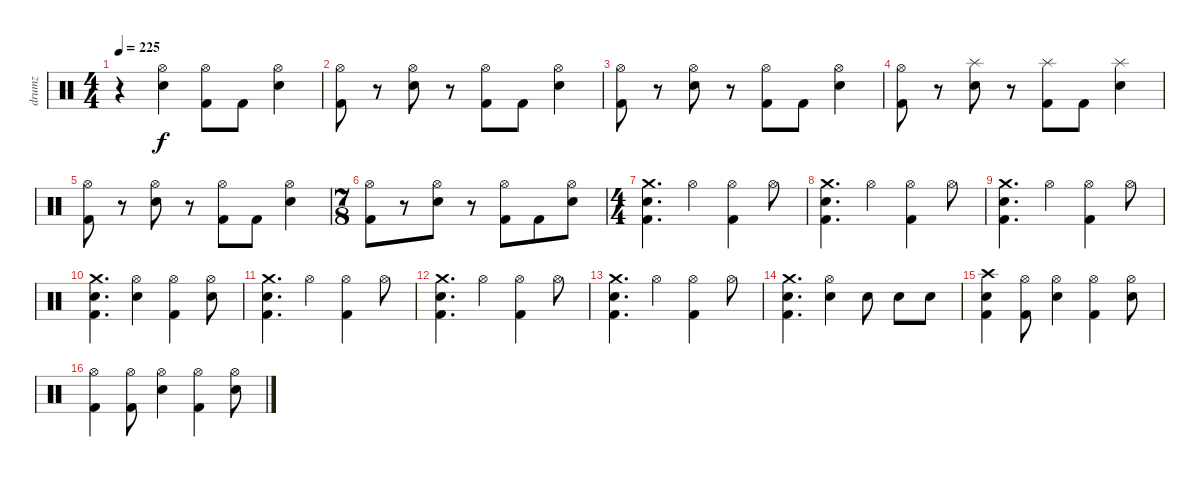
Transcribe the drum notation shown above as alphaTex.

\track ("drumz" "drumz") {instrument percussion}
\staff {score}
\articulation defaults
\ts (4 4)
\tempo 225
\clef neutral
\ks c
r.4{dy f} ("Hi-Hat (open)" "Electric Snare (hit)").4 ("Hi-Hat (open)" "Kick (hit) 2").8 "Kick (hit) 2".8 ("Hi-Hat (open)" "Electric Snare (hit)").4 |
("Hi-Hat (open)" "Kick (hit) 2").8 r.8 ("Hi-Hat (open)" "Electric Snare (hit)").8 r.8 ("Hi-Hat (open)" "Kick (hit) 2").8 "Kick (hit) 2".8 ("Hi-Hat (open)" "Electric Snare (hit)").4 |
("Hi-Hat (open)" "Kick (hit) 2").8 r.8 ("Hi-Hat (open)" "Electric Snare (hit)").8 r.8 ("Hi-Hat (open)" "Kick (hit) 2").8 "Kick (hit) 2".8 ("Hi-Hat (open)" "Electric Snare (hit)").4 |
("Hi-Hat (open)" "Kick (hit) 2").8 r.8 ("Splash (hit)" "Electric Snare (hit)").8 r.8 ("Splash (hit)" "Kick (hit) 2").8 "Kick (hit) 2".8 ("Splash (hit)" "Electric Snare (hit)").4 |
("Hi-Hat (open)" "Kick (hit) 2").8 r.8 ("Hi-Hat (open)" "Electric Snare (hit)").8 r.8 ("Hi-Hat (open)" "Kick (hit) 2").8 "Kick (hit) 2".8 ("Hi-Hat (open)" "Electric Snare (hit)").4 |
\ts (7 8)
("Hi-Hat (open)" "Kick (hit) 2").8 r.8 ("Hi-Hat (open)" "Electric Snare (hit)").8 r.8 ("Hi-Hat (open)" "Kick (hit) 2").8 "Kick (hit) 2".8 ("Hi-Hat (open)" "Electric Snare (hit)").8 |
\ts (4 4)
("Crash medium (hit)" "Electric Snare (hit)" "Kick (hit) 2").4{d} "Hi-Hat (open)".4 ("Hi-Hat (open)" "Kick (hit) 2").4 "Hi-Hat (open)".8 |
("Crash medium (hit)" "Electric Snare (hit)" "Kick (hit) 2").4{d} "Hi-Hat (open)".4 ("Hi-Hat (open)" "Kick (hit) 2").4 "Hi-Hat (open)".8 |
("Crash medium (hit)" "Electric Snare (hit)" "Kick (hit) 2").4{d} "Hi-Hat (open)".4 ("Hi-Hat (open)" "Kick (hit) 2").4 "Hi-Hat (open)".8 |
("Crash medium (hit)" "Electric Snare (hit)" "Kick (hit) 2").4{d} ("Hi-Hat (open)" "Electric Snare (hit)").4 ("Hi-Hat (open)" "Kick (hit) 2").4 ("Hi-Hat (open)" "Electric Snare (hit)").8 |
("Crash medium (hit)" "Electric Snare (hit)" "Kick (hit) 2").4{d} "Hi-Hat (open)".4 ("Hi-Hat (open)" "Kick (hit) 2").4 "Hi-Hat (open)".8 |
("Crash medium (hit)" "Electric Snare (hit)" "Kick (hit) 2").4{d} "Hi-Hat (open)".4 ("Hi-Hat (open)" "Kick (hit) 2").4 "Hi-Hat (open)".8 |
("Crash medium (hit)" "Electric Snare (hit)" "Kick (hit) 2").4{d} "Hi-Hat (open)".4 ("Hi-Hat (open)" "Kick (hit) 2").4 "Hi-Hat (open)".8 |
("Crash medium (hit)" "Electric Snare (hit)" "Kick (hit) 2").4{d} ("Hi-Hat (open)" "Electric Snare (hit)").4 "Electric Snare (hit)".8 "Electric Snare (hit)".8 "Electric Snare (hit)".8 |
("Crash high (hit)" "Electric Snare (hit)" "Kick (hit) 2").4 ("Hi-Hat (open)" "Kick (hit) 2").8 ("Hi-Hat (open)" "Electric Snare (hit)").4 ("Hi-Hat (open)" "Kick (hit) 2").4 ("Hi-Hat (open)" "Electric Snare (hit)").8 |
("Hi-Hat (open)" "Kick (hit) 2").4 ("Hi-Hat (open)" "Kick (hit) 2").8 ("Hi-Hat (open)" "Electric Snare (hit)").4 ("Hi-Hat (open)" "Kick (hit) 2").4 ("Hi-Hat (open)" "Electric Snare (hit)").8
